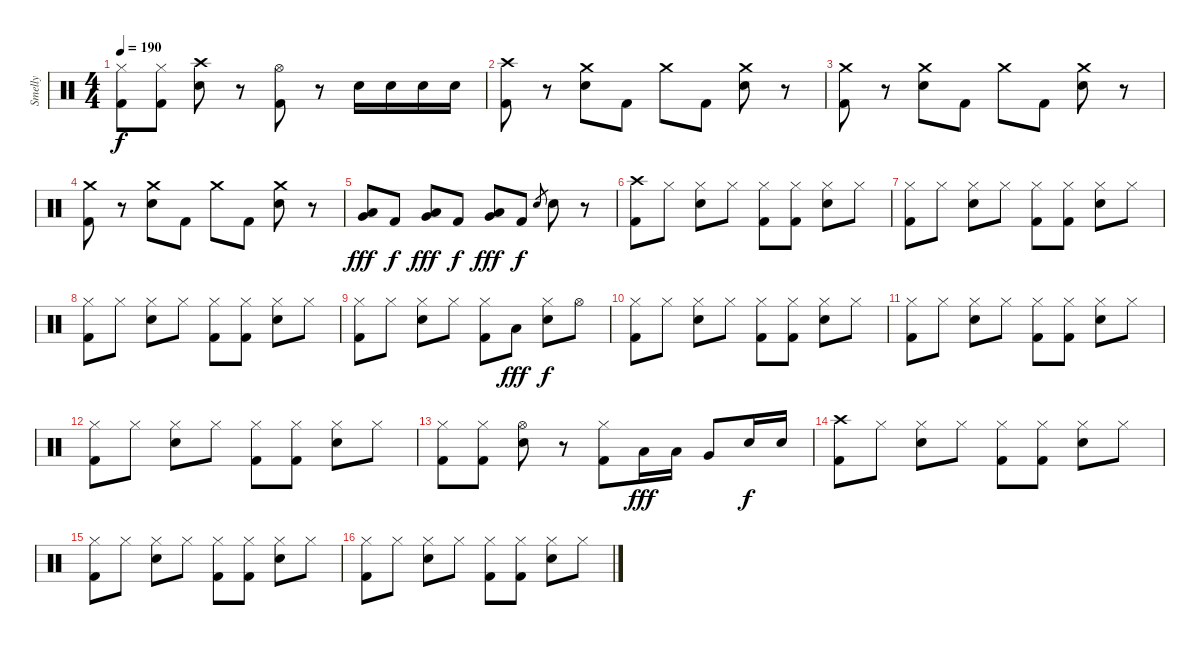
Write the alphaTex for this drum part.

\track ("Smelly" "Smelly") {instrument percussion}
\staff {score}
\articulation defaults
\ts (4 4)
\tempo 190
\clef neutral
\ks c
("Hi-Hat (closed)" "Kick (hit) 2").8{dy f} ("Hi-Hat (closed)" "Kick (hit) 2").8 ("Crash high (hit)" "Electric Snare (hit)").8 r.8 ("Hi-Hat (open)" "Kick (hit) 2").8 r.8 "Electric Snare (hit)".16 "Electric Snare (hit)".16 "Electric Snare (hit)".16 "Electric Snare (hit)".16 |
("Crash high (hit)" "Kick (hit) 2").8 r.8 ("Crash medium (hit)" "Electric Snare (hit)").8 "Kick (hit) 2".8 "Crash medium (hit)".8 "Kick (hit) 2".8 ("Crash medium (hit)" "Electric Snare (hit)").8 r.8 |
("Crash medium (hit)" "Kick (hit) 2").8 r.8 ("Crash medium (hit)" "Electric Snare (hit)").8 "Kick (hit) 2".8 "Crash medium (hit)".8 "Kick (hit) 2".8 ("Crash medium (hit)" "Electric Snare (hit)").8 r.8 |
("Crash medium (hit)" "Kick (hit) 2").8 r.8 ("Crash medium (hit)" "Electric Snare (hit)").8 "Kick (hit) 2".8 "Crash medium (hit)".8 "Kick (hit) 2".8 ("Crash medium (hit)" "Electric Snare (hit)").8 r.8 |
("Low Tom (hit)" "Very Low Tom (hit)").8{dy fff} "Kick (hit) 2".8{dy f} ("Low Tom (hit)" "Very Low Tom (hit)").8{dy fff} "Kick (hit) 2".8{dy f} ("Low Tom (hit)" "Very Low Tom (hit)").8{dy fff} "Kick (hit) 2".8{dy f} "Electric Snare (hit)".8{gr} "Electric Snare (hit)".8 r.8 |
("Crash high (hit)" "Kick (hit) 2").8 "Hi-Hat (closed)".8 ("Hi-Hat (closed)" "Electric Snare (hit)").8 "Hi-Hat (closed)".8 ("Hi-Hat (closed)" "Kick (hit) 2").8 ("Hi-Hat (closed)" "Kick (hit) 2").8 ("Hi-Hat (closed)" "Electric Snare (hit)").8 "Hi-Hat (closed)".8 |
("Hi-Hat (closed)" "Kick (hit) 2").8 "Hi-Hat (closed)".8 ("Hi-Hat (closed)" "Electric Snare (hit)").8 "Hi-Hat (closed)".8 ("Hi-Hat (closed)" "Kick (hit) 2").8 ("Hi-Hat (closed)" "Kick (hit) 2").8 ("Hi-Hat (closed)" "Electric Snare (hit)").8 "Hi-Hat (closed)".8 |
("Hi-Hat (closed)" "Kick (hit) 2").8 "Hi-Hat (closed)".8 ("Hi-Hat (closed)" "Electric Snare (hit)").8 "Hi-Hat (closed)".8 ("Hi-Hat (closed)" "Kick (hit) 2").8 ("Hi-Hat (closed)" "Kick (hit) 2").8 ("Hi-Hat (closed)" "Electric Snare (hit)").8 "Hi-Hat (closed)".8 |
("Hi-Hat (closed)" "Kick (hit) 2").8 "Hi-Hat (closed)".8 ("Hi-Hat (closed)" "Electric Snare (hit)").8 "Hi-Hat (closed)".8 ("Hi-Hat (closed)" "Kick (hit) 2").8 "Low Tom (hit)".8{dy fff} ("Hi-Hat (closed)" "Electric Snare (hit)").8{dy f} "Hi-Hat (open)".8 |
("Hi-Hat (closed)" "Kick (hit) 2").8 "Hi-Hat (closed)".8 ("Hi-Hat (closed)" "Electric Snare (hit)").8 "Hi-Hat (closed)".8 ("Hi-Hat (closed)" "Kick (hit) 2").8 ("Hi-Hat (closed)" "Kick (hit) 2").8 ("Hi-Hat (closed)" "Electric Snare (hit)").8 "Hi-Hat (closed)".8 |
("Hi-Hat (closed)" "Kick (hit) 2").8 "Hi-Hat (closed)".8 ("Hi-Hat (closed)" "Electric Snare (hit)").8 "Hi-Hat (closed)".8 ("Hi-Hat (closed)" "Kick (hit) 2").8 ("Hi-Hat (closed)" "Kick (hit) 2").8 ("Hi-Hat (closed)" "Electric Snare (hit)").8 "Hi-Hat (closed)".8 |
("Hi-Hat (closed)" "Kick (hit) 2").8 "Hi-Hat (closed)".8 ("Hi-Hat (closed)" "Electric Snare (hit)").8 "Hi-Hat (closed)".8 ("Hi-Hat (closed)" "Kick (hit) 2").8 ("Hi-Hat (closed)" "Kick (hit) 2").8 ("Hi-Hat (closed)" "Electric Snare (hit)").8 "Hi-Hat (closed)".8 |
("Hi-Hat (closed)" "Kick (hit) 2").8 ("Hi-Hat (closed)" "Kick (hit) 2").8 ("Hi-Hat (open)" "Electric Snare (hit)").8 r.8 ("Hi-Hat (closed)" "Kick (hit) 2").8 "Low Tom (hit)".16{dy fff} "Low Tom (hit)".16 "Very Low Tom (hit)".8 "Electric Snare (hit)".16{dy f} "Electric Snare (hit)".16 |
("Crash high (hit)" "Kick (hit) 2").8 "Hi-Hat (closed)".8 ("Hi-Hat (closed)" "Electric Snare (hit)").8 "Hi-Hat (closed)".8 ("Hi-Hat (closed)" "Kick (hit) 2").8 ("Hi-Hat (closed)" "Kick (hit) 2").8 ("Hi-Hat (closed)" "Electric Snare (hit)").8 "Hi-Hat (closed)".8 |
("Hi-Hat (closed)" "Kick (hit) 2").8 "Hi-Hat (closed)".8 ("Hi-Hat (closed)" "Electric Snare (hit)").8 "Hi-Hat (closed)".8 ("Hi-Hat (closed)" "Kick (hit) 2").8 ("Hi-Hat (closed)" "Kick (hit) 2").8 ("Hi-Hat (closed)" "Electric Snare (hit)").8 "Hi-Hat (closed)".8 |
("Hi-Hat (closed)" "Kick (hit) 2").8 "Hi-Hat (closed)".8 ("Hi-Hat (closed)" "Electric Snare (hit)").8 "Hi-Hat (closed)".8 ("Hi-Hat (closed)" "Kick (hit) 2").8 ("Hi-Hat (closed)" "Kick (hit) 2").8 ("Hi-Hat (closed)" "Electric Snare (hit)").8 "Hi-Hat (closed)".8
